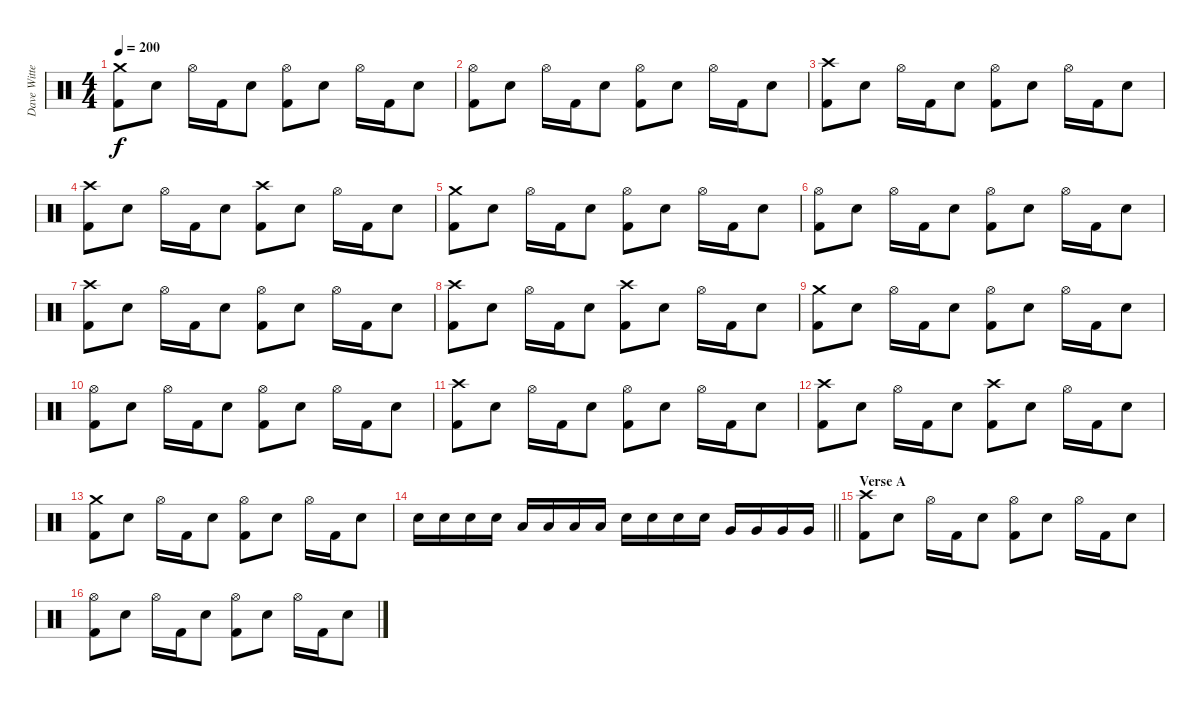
\track ("Dave Witte" "Dave Witte") {instrument percussion}
\staff {score}
\articulation defaults
\ts (4 4)
\tempo 200
\clef neutral
\ks c
("Crash medium (hit)" "Kick (hit) 2").8{dy f} "Electric Snare (hit)".8 "Hi-Hat (open)".16 "Kick (hit) 2".16 "Electric Snare (hit)".8 ("Hi-Hat (open)" "Kick (hit) 2").8 "Electric Snare (hit)".8 "Hi-Hat (open)".16 "Kick (hit) 2".16 "Electric Snare (hit)".8 |
("Hi-Hat (open)" "Kick (hit) 2").8 "Electric Snare (hit)".8 "Hi-Hat (open)".16 "Kick (hit) 2".16 "Electric Snare (hit)".8 ("Hi-Hat (open)" "Kick (hit) 2").8 "Electric Snare (hit)".8 "Hi-Hat (open)".16 "Kick (hit) 2".16 "Electric Snare (hit)".8 |
("Crash high (hit)" "Kick (hit) 2").8 "Electric Snare (hit)".8 "Hi-Hat (open)".16 "Kick (hit) 2".16 "Electric Snare (hit)".8 ("Hi-Hat (open)" "Kick (hit) 2").8 "Electric Snare (hit)".8 "Hi-Hat (open)".16 "Kick (hit) 2".16 "Electric Snare (hit)".8 |
("Crash high (hit)" "Kick (hit) 2").8 "Electric Snare (hit)".8 "Hi-Hat (open)".16 "Kick (hit) 2".16 "Electric Snare (hit)".8 ("Crash high (hit)" "Kick (hit) 2").8 "Electric Snare (hit)".8 "Hi-Hat (open)".16 "Kick (hit) 2".16 "Electric Snare (hit)".8 |
("Crash medium (hit)" "Kick (hit) 2").8 "Electric Snare (hit)".8 "Hi-Hat (open)".16 "Kick (hit) 2".16 "Electric Snare (hit)".8 ("Hi-Hat (open)" "Kick (hit) 2").8 "Electric Snare (hit)".8 "Hi-Hat (open)".16 "Kick (hit) 2".16 "Electric Snare (hit)".8 |
("Hi-Hat (open)" "Kick (hit) 2").8 "Electric Snare (hit)".8 "Hi-Hat (open)".16 "Kick (hit) 2".16 "Electric Snare (hit)".8 ("Hi-Hat (open)" "Kick (hit) 2").8 "Electric Snare (hit)".8 "Hi-Hat (open)".16 "Kick (hit) 2".16 "Electric Snare (hit)".8 |
("Crash high (hit)" "Kick (hit) 2").8 "Electric Snare (hit)".8 "Hi-Hat (open)".16 "Kick (hit) 2".16 "Electric Snare (hit)".8 ("Hi-Hat (open)" "Kick (hit) 2").8 "Electric Snare (hit)".8 "Hi-Hat (open)".16 "Kick (hit) 2".16 "Electric Snare (hit)".8 |
("Crash high (hit)" "Kick (hit) 2").8 "Electric Snare (hit)".8 "Hi-Hat (open)".16 "Kick (hit) 2".16 "Electric Snare (hit)".8 ("Crash high (hit)" "Kick (hit) 2").8 "Electric Snare (hit)".8 "Hi-Hat (open)".16 "Kick (hit) 2".16 "Electric Snare (hit)".8 |
("Crash medium (hit)" "Kick (hit) 2").8 "Electric Snare (hit)".8 "Hi-Hat (open)".16 "Kick (hit) 2".16 "Electric Snare (hit)".8 ("Hi-Hat (open)" "Kick (hit) 2").8 "Electric Snare (hit)".8 "Hi-Hat (open)".16 "Kick (hit) 2".16 "Electric Snare (hit)".8 |
("Hi-Hat (open)" "Kick (hit) 2").8 "Electric Snare (hit)".8 "Hi-Hat (open)".16 "Kick (hit) 2".16 "Electric Snare (hit)".8 ("Hi-Hat (open)" "Kick (hit) 2").8 "Electric Snare (hit)".8 "Hi-Hat (open)".16 "Kick (hit) 2".16 "Electric Snare (hit)".8 |
("Crash high (hit)" "Kick (hit) 2").8 "Electric Snare (hit)".8 "Hi-Hat (open)".16 "Kick (hit) 2".16 "Electric Snare (hit)".8 ("Hi-Hat (open)" "Kick (hit) 2").8 "Electric Snare (hit)".8 "Hi-Hat (open)".16 "Kick (hit) 2".16 "Electric Snare (hit)".8 |
("Crash high (hit)" "Kick (hit) 2").8 "Electric Snare (hit)".8 "Hi-Hat (open)".16 "Kick (hit) 2".16 "Electric Snare (hit)".8 ("Crash high (hit)" "Kick (hit) 2").8 "Electric Snare (hit)".8 "Hi-Hat (open)".16 "Kick (hit) 2".16 "Electric Snare (hit)".8 |
("Crash medium (hit)" "Kick (hit) 2").8 "Electric Snare (hit)".8 "Hi-Hat (open)".16 "Kick (hit) 2".16 "Electric Snare (hit)".8 ("Hi-Hat (open)" "Kick (hit) 2").8 "Electric Snare (hit)".8 "Hi-Hat (open)".16 "Kick (hit) 2".16 "Electric Snare (hit)".8 |
\barLineRight lightlight "Electric Snare (hit)".16 "Electric Snare (hit)".16 "Electric Snare (hit)".16 "Electric Snare (hit)".16 "Low Tom (hit)".16 "Low Tom (hit)".16 "Low Tom (hit)".16 "Low Tom (hit)".16 "Electric Snare (hit)".16 "Electric Snare (hit)".16 "Electric Snare (hit)".16 "Electric Snare (hit)".16 "Very Low Tom (hit)".16 "Very Low Tom (hit)".16 "Very Low Tom (hit)".16 "Very Low Tom (hit)".16
|
\section ("" "Verse A")
("Crash high (hit)" "Kick (hit) 2").8 "Electric Snare (hit)".8 "Hi-Hat (open)".16 "Kick (hit) 2".16 "Electric Snare (hit)".8 ("Hi-Hat (open)" "Kick (hit) 2").8 "Electric Snare (hit)".8 "Hi-Hat (open)".16 "Kick (hit) 2".16 "Electric Snare (hit)".8 |
("Hi-Hat (open)" "Kick (hit) 2").8 "Electric Snare (hit)".8 "Hi-Hat (open)".16 "Kick (hit) 2".16 "Electric Snare (hit)".8 ("Hi-Hat (open)" "Kick (hit) 2").8 "Electric Snare (hit)".8 "Hi-Hat (open)".16 "Kick (hit) 2".16 "Electric Snare (hit)".8
